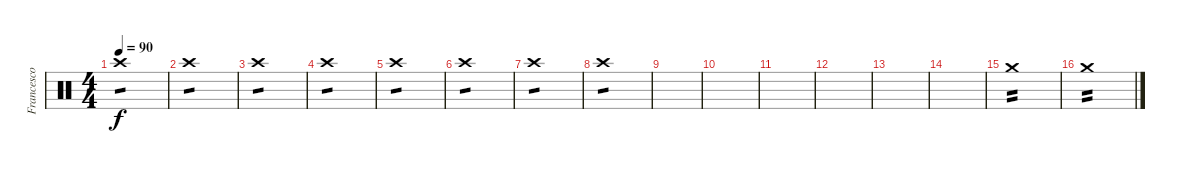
\track ("Francesco -Franz- Valente" "Francesco ") {instrument percussion}
\staff {score}
\articulation defaults
\ts (4 4)
\tempo 90
\clef neutral
\ks c "Crash high (hit)".1{tp 1 dy f}
|
"Crash high (hit)".1{tp 1} |
"Crash high (hit)".1{tp 1} |
"Crash high (hit)".1{tp 1} |
"Crash high (hit)".1{tp 1} |
"Crash high (hit)".1{tp 1} |
"Crash high (hit)".1{tp 1} |
"Crash high (hit)".1{tp 1} |
|
|
|
|
|
|
"Crash medium (hit)".1{tp 2} |
"Crash medium (hit)".1{tp 2}
